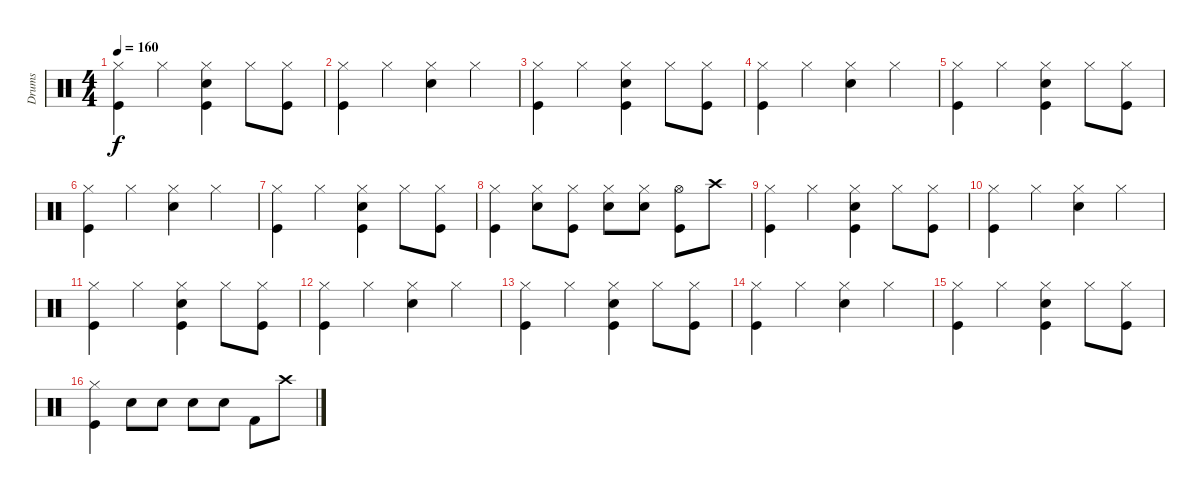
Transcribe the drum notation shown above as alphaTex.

\track ("Drums" "Drums") {instrument percussion}
\staff {score}
\articulation defaults
\ts (4 4)
\tempo 160
\clef neutral
\ks c
("Hi-Hat (closed)" "Kick (hit)").4{dy f} "Hi-Hat (closed)".4 ("Hi-Hat (closed)" "Kick (hit)" "Snare (hit) 2").4 "Hi-Hat (closed)".8 ("Hi-Hat (closed)" "Kick (hit)").8 |
("Kick (hit)" "Hi-Hat (closed)").4 "Hi-Hat (closed)".4 ("Hi-Hat (closed)" "Snare (hit) 2").4 "Hi-Hat (closed)".4 |
("Hi-Hat (closed)" "Kick (hit)").4 "Hi-Hat (closed)".4 ("Hi-Hat (closed)" "Kick (hit)" "Snare (hit) 2").4 "Hi-Hat (closed)".8 ("Hi-Hat (closed)" "Kick (hit)").8 |
("Kick (hit)" "Hi-Hat (closed)").4 "Hi-Hat (closed)".4 ("Hi-Hat (closed)" "Snare (hit) 2").4 "Hi-Hat (closed)".4 |
("Hi-Hat (closed)" "Kick (hit)").4 "Hi-Hat (closed)".4 ("Hi-Hat (closed)" "Kick (hit)" "Snare (hit) 2").4 "Hi-Hat (closed)".8 ("Hi-Hat (closed)" "Kick (hit)").8 |
("Kick (hit)" "Hi-Hat (closed)").4 "Hi-Hat (closed)".4 ("Hi-Hat (closed)" "Snare (hit) 2").4 "Hi-Hat (closed)".4 |
("Hi-Hat (closed)" "Kick (hit)").4 "Hi-Hat (closed)".4 ("Hi-Hat (closed)" "Kick (hit)" "Snare (hit) 2").4 "Hi-Hat (closed)".8 ("Hi-Hat (closed)" "Kick (hit)").8 |
("Kick (hit)" "Hi-Hat (closed)").4 ("Hi-Hat (closed)" "Snare (hit) 2").8 ("Hi-Hat (closed)" "Kick (hit)").8 ("Hi-Hat (closed)" "Snare (hit) 2").8 ("Hi-Hat (closed)" "Snare (hit) 2").8 ("Hi-Hat (open)" "Kick (hit)").8 "Crash high (hit)".8 |
("Hi-Hat (closed)" "Kick (hit)").4 "Hi-Hat (closed)".4 ("Hi-Hat (closed)" "Kick (hit)" "Snare (hit) 2").4 "Hi-Hat (closed)".8 ("Hi-Hat (closed)" "Kick (hit)").8 |
("Kick (hit)" "Hi-Hat (closed)").4 "Hi-Hat (closed)".4 ("Hi-Hat (closed)" "Snare (hit) 2").4 "Hi-Hat (closed)".4 |
("Hi-Hat (closed)" "Kick (hit)").4 "Hi-Hat (closed)".4 ("Hi-Hat (closed)" "Kick (hit)" "Snare (hit) 2").4 "Hi-Hat (closed)".8 ("Hi-Hat (closed)" "Kick (hit)").8 |
("Kick (hit)" "Hi-Hat (closed)").4 "Hi-Hat (closed)".4 ("Hi-Hat (closed)" "Snare (hit) 2").4 "Hi-Hat (closed)".4 |
("Hi-Hat (closed)" "Kick (hit)").4 "Hi-Hat (closed)".4 ("Hi-Hat (closed)" "Kick (hit)" "Snare (hit) 2").4 "Hi-Hat (closed)".8 ("Hi-Hat (closed)" "Kick (hit)").8 |
("Kick (hit)" "Hi-Hat (closed)").4 "Hi-Hat (closed)".4 ("Hi-Hat (closed)" "Snare (hit) 2").4 "Hi-Hat (closed)".4 |
("Hi-Hat (closed)" "Kick (hit)").4 "Hi-Hat (closed)".4 ("Hi-Hat (closed)" "Kick (hit)" "Snare (hit) 2").4 "Hi-Hat (closed)".8 ("Hi-Hat (closed)" "Kick (hit)").8 |
("Kick (hit)" "Hi-Hat (closed)").4 "Snare (hit) 2".8 "Snare (hit) 2".8 "Snare (hit) 2".8 "Snare (hit) 2".8 "Kick (hit) 2".8 "Crash high (hit)".8
